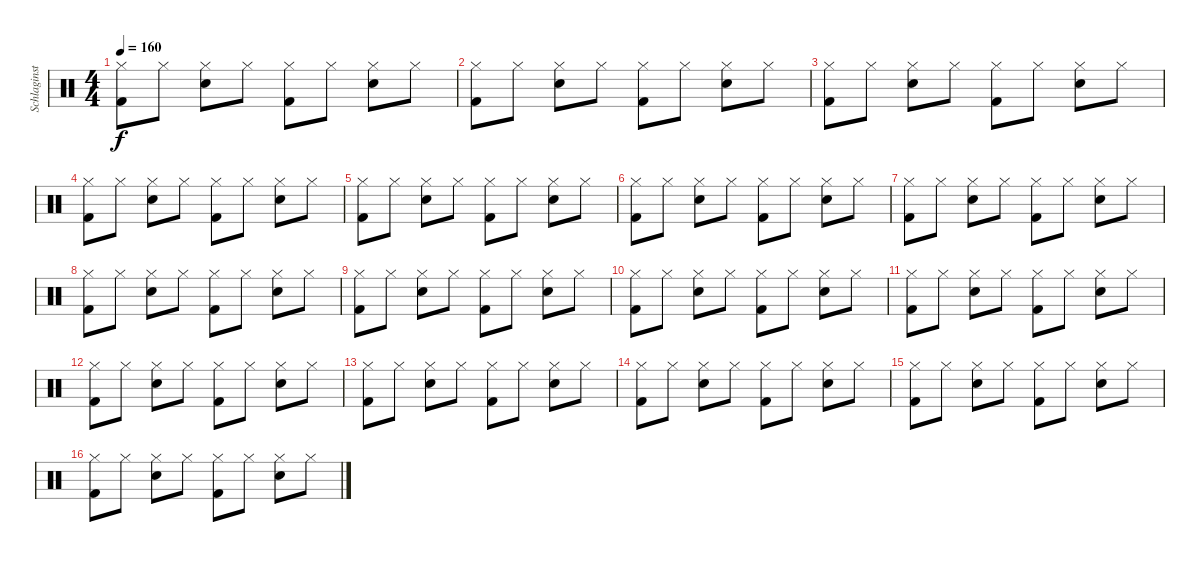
\track ("Schlaginstrumente - Auswahl" "Schlaginst") {instrument percussion}
\staff {score}
\articulation defaults
\ts (4 4)
\tempo 160
\clef neutral
\ks c
("Hi-Hat (closed)" "Kick (hit) 2").8{dy f} "Hi-Hat (closed)".8 ("Hi-Hat (closed)" "Snare (hit) 2").8 "Hi-Hat (closed)".8 ("Hi-Hat (closed)" "Kick (hit) 2").8 "Hi-Hat (closed)".8 ("Hi-Hat (closed)" "Snare (hit) 2").8 "Hi-Hat (closed)".8 |
("Hi-Hat (closed)" "Kick (hit) 2").8 "Hi-Hat (closed)".8 ("Hi-Hat (closed)" "Snare (hit) 2").8 "Hi-Hat (closed)".8 ("Hi-Hat (closed)" "Kick (hit) 2").8 "Hi-Hat (closed)".8 ("Hi-Hat (closed)" "Snare (hit) 2").8 "Hi-Hat (closed)".8 |
("Hi-Hat (closed)" "Kick (hit) 2").8 "Hi-Hat (closed)".8 ("Hi-Hat (closed)" "Snare (hit) 2").8 "Hi-Hat (closed)".8 ("Hi-Hat (closed)" "Kick (hit) 2").8 "Hi-Hat (closed)".8 ("Hi-Hat (closed)" "Snare (hit) 2").8 "Hi-Hat (closed)".8 |
("Hi-Hat (closed)" "Kick (hit) 2").8 "Hi-Hat (closed)".8 ("Hi-Hat (closed)" "Snare (hit) 2").8 "Hi-Hat (closed)".8 ("Hi-Hat (closed)" "Kick (hit) 2").8 "Hi-Hat (closed)".8 ("Hi-Hat (closed)" "Snare (hit) 2").8 "Hi-Hat (closed)".8 |
("Hi-Hat (closed)" "Kick (hit) 2").8 "Hi-Hat (closed)".8 ("Hi-Hat (closed)" "Snare (hit) 2").8 "Hi-Hat (closed)".8 ("Hi-Hat (closed)" "Kick (hit) 2").8 "Hi-Hat (closed)".8 ("Hi-Hat (closed)" "Snare (hit) 2").8 "Hi-Hat (closed)".8 |
("Hi-Hat (closed)" "Kick (hit) 2").8 "Hi-Hat (closed)".8 ("Hi-Hat (closed)" "Snare (hit) 2").8 "Hi-Hat (closed)".8 ("Hi-Hat (closed)" "Kick (hit) 2").8 "Hi-Hat (closed)".8 ("Hi-Hat (closed)" "Snare (hit) 2").8 "Hi-Hat (closed)".8 |
("Hi-Hat (closed)" "Kick (hit) 2").8 "Hi-Hat (closed)".8 ("Hi-Hat (closed)" "Snare (hit) 2").8 "Hi-Hat (closed)".8 ("Hi-Hat (closed)" "Kick (hit) 2").8 "Hi-Hat (closed)".8 ("Hi-Hat (closed)" "Snare (hit) 2").8 "Hi-Hat (closed)".8 |
("Hi-Hat (closed)" "Kick (hit) 2").8 "Hi-Hat (closed)".8 ("Hi-Hat (closed)" "Snare (hit) 2").8 "Hi-Hat (closed)".8 ("Hi-Hat (closed)" "Kick (hit) 2").8 "Hi-Hat (closed)".8 ("Hi-Hat (closed)" "Snare (hit) 2").8 "Hi-Hat (closed)".8 |
("Hi-Hat (closed)" "Kick (hit) 2").8 "Hi-Hat (closed)".8 ("Hi-Hat (closed)" "Snare (hit) 2").8 "Hi-Hat (closed)".8 ("Hi-Hat (closed)" "Kick (hit) 2").8 "Hi-Hat (closed)".8 ("Hi-Hat (closed)" "Snare (hit) 2").8 "Hi-Hat (closed)".8 |
("Hi-Hat (closed)" "Kick (hit) 2").8 "Hi-Hat (closed)".8 ("Hi-Hat (closed)" "Snare (hit) 2").8 "Hi-Hat (closed)".8 ("Hi-Hat (closed)" "Kick (hit) 2").8 "Hi-Hat (closed)".8 ("Hi-Hat (closed)" "Snare (hit) 2").8 "Hi-Hat (closed)".8 |
("Hi-Hat (closed)" "Kick (hit) 2").8 "Hi-Hat (closed)".8 ("Hi-Hat (closed)" "Snare (hit) 2").8 "Hi-Hat (closed)".8 ("Hi-Hat (closed)" "Kick (hit) 2").8 "Hi-Hat (closed)".8 ("Hi-Hat (closed)" "Snare (hit) 2").8 "Hi-Hat (closed)".8 |
("Hi-Hat (closed)" "Kick (hit) 2").8 "Hi-Hat (closed)".8 ("Hi-Hat (closed)" "Snare (hit) 2").8 "Hi-Hat (closed)".8 ("Hi-Hat (closed)" "Kick (hit) 2").8 "Hi-Hat (closed)".8 ("Hi-Hat (closed)" "Snare (hit) 2").8 "Hi-Hat (closed)".8 |
("Hi-Hat (closed)" "Kick (hit) 2").8 "Hi-Hat (closed)".8 ("Hi-Hat (closed)" "Snare (hit) 2").8 "Hi-Hat (closed)".8 ("Hi-Hat (closed)" "Kick (hit) 2").8 "Hi-Hat (closed)".8 ("Hi-Hat (closed)" "Snare (hit) 2").8 "Hi-Hat (closed)".8 |
("Hi-Hat (closed)" "Kick (hit) 2").8 "Hi-Hat (closed)".8 ("Hi-Hat (closed)" "Snare (hit) 2").8 "Hi-Hat (closed)".8 ("Hi-Hat (closed)" "Kick (hit) 2").8 "Hi-Hat (closed)".8 ("Hi-Hat (closed)" "Snare (hit) 2").8 "Hi-Hat (closed)".8 |
("Hi-Hat (closed)" "Kick (hit) 2").8 "Hi-Hat (closed)".8 ("Hi-Hat (closed)" "Snare (hit) 2").8 "Hi-Hat (closed)".8 ("Hi-Hat (closed)" "Kick (hit) 2").8 "Hi-Hat (closed)".8 ("Hi-Hat (closed)" "Snare (hit) 2").8 "Hi-Hat (closed)".8 |
("Hi-Hat (closed)" "Kick (hit) 2").8 "Hi-Hat (closed)".8 ("Hi-Hat (closed)" "Snare (hit) 2").8 "Hi-Hat (closed)".8 ("Hi-Hat (closed)" "Kick (hit) 2").8 "Hi-Hat (closed)".8 ("Hi-Hat (closed)" "Snare (hit) 2").8 "Hi-Hat (closed)".8
